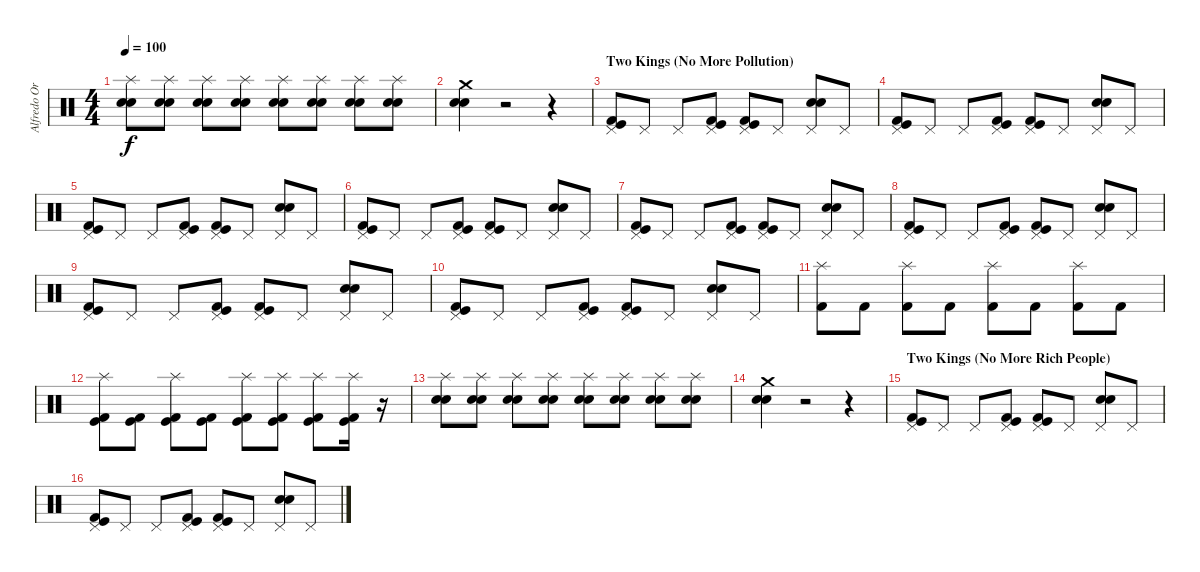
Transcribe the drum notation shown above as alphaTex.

\track ("Alfredo Ortiz (Drums)" "Alfredo Or") {instrument percussion}
\staff {score}
\articulation defaults
\ts (4 4)
\tempo 100
\clef neutral
\ks c
("Snare (hit) 2" "Electric Snare (hit)" "Splash (hit)").8{dy f volume 11} ("Snare (hit) 2" "Electric Snare (hit)" "Splash (hit)").8 ("Snare (hit) 2" "Electric Snare (hit)" "Splash (hit)").8 ("Snare (hit) 2" "Electric Snare (hit)" "Splash (hit)").8 ("Snare (hit) 2" "Electric Snare (hit)" "Splash (hit)").8 ("Snare (hit) 2" "Electric Snare (hit)" "Splash (hit)").8 ("Snare (hit) 2" "Electric Snare (hit)" "Splash (hit)").8 ("Snare (hit) 2" "Electric Snare (hit)" "Splash (hit)").8 |
("Snare (hit) 2" "Electric Snare (hit)" "Crash medium (hit)").4 r.2 r.4 |
\section ("" "Two Kings (No More Pollution)")
("Kick (hit) 2" "Kick (hit)" "Pedal Hi-Hat (hit)").8 "Pedal Hi-Hat (hit)".8 "Pedal Hi-Hat (hit)".8 ("Kick (hit) 2" "Kick (hit)" "Pedal Hi-Hat (hit)").8 ("Kick (hit) 2" "Kick (hit)" "Pedal Hi-Hat (hit)").8 "Pedal Hi-Hat (hit)".8 ("Snare (hit) 2" "Electric Snare (hit)" "Pedal Hi-Hat (hit)").8 "Pedal Hi-Hat (hit)".8 |
("Kick (hit) 2" "Kick (hit)" "Pedal Hi-Hat (hit)").8 "Pedal Hi-Hat (hit)".8 "Pedal Hi-Hat (hit)".8 ("Kick (hit) 2" "Kick (hit)" "Pedal Hi-Hat (hit)").8 ("Kick (hit) 2" "Kick (hit)" "Pedal Hi-Hat (hit)").8 "Pedal Hi-Hat (hit)".8 ("Snare (hit) 2" "Electric Snare (hit)" "Pedal Hi-Hat (hit)").8 "Pedal Hi-Hat (hit)".8 |
("Kick (hit) 2" "Kick (hit)" "Pedal Hi-Hat (hit)").8 "Pedal Hi-Hat (hit)".8 "Pedal Hi-Hat (hit)".8 ("Kick (hit) 2" "Kick (hit)" "Pedal Hi-Hat (hit)").8 ("Kick (hit) 2" "Kick (hit)" "Pedal Hi-Hat (hit)").8 "Pedal Hi-Hat (hit)".8 ("Snare (hit) 2" "Electric Snare (hit)" "Pedal Hi-Hat (hit)").8 "Pedal Hi-Hat (hit)".8 |
("Kick (hit) 2" "Kick (hit)" "Pedal Hi-Hat (hit)").8 "Pedal Hi-Hat (hit)".8 "Pedal Hi-Hat (hit)".8 ("Kick (hit) 2" "Kick (hit)" "Pedal Hi-Hat (hit)").8 ("Kick (hit) 2" "Kick (hit)" "Pedal Hi-Hat (hit)").8 "Pedal Hi-Hat (hit)".8 ("Snare (hit) 2" "Electric Snare (hit)" "Pedal Hi-Hat (hit)").8 "Pedal Hi-Hat (hit)".8 |
("Kick (hit) 2" "Kick (hit)" "Pedal Hi-Hat (hit)").8 "Pedal Hi-Hat (hit)".8 "Pedal Hi-Hat (hit)".8 ("Kick (hit) 2" "Kick (hit)" "Pedal Hi-Hat (hit)").8 ("Kick (hit) 2" "Kick (hit)" "Pedal Hi-Hat (hit)").8 "Pedal Hi-Hat (hit)".8 ("Snare (hit) 2" "Electric Snare (hit)" "Pedal Hi-Hat (hit)").8 "Pedal Hi-Hat (hit)".8 |
("Kick (hit) 2" "Kick (hit)" "Pedal Hi-Hat (hit)").8 "Pedal Hi-Hat (hit)".8 "Pedal Hi-Hat (hit)".8 ("Kick (hit) 2" "Kick (hit)" "Pedal Hi-Hat (hit)").8 ("Kick (hit) 2" "Kick (hit)" "Pedal Hi-Hat (hit)").8 "Pedal Hi-Hat (hit)".8 ("Snare (hit) 2" "Electric Snare (hit)" "Pedal Hi-Hat (hit)").8 "Pedal Hi-Hat (hit)".8 |
("Kick (hit) 2" "Kick (hit)" "Pedal Hi-Hat (hit)").8 "Pedal Hi-Hat (hit)".8 "Pedal Hi-Hat (hit)".8 ("Kick (hit) 2" "Kick (hit)" "Pedal Hi-Hat (hit)").8 ("Kick (hit) 2" "Kick (hit)" "Pedal Hi-Hat (hit)").8 "Pedal Hi-Hat (hit)".8 ("Snare (hit) 2" "Electric Snare (hit)" "Pedal Hi-Hat (hit)").8 "Pedal Hi-Hat (hit)".8 |
("Kick (hit) 2" "Kick (hit)" "Pedal Hi-Hat (hit)").8 "Pedal Hi-Hat (hit)".8 "Pedal Hi-Hat (hit)".8 ("Kick (hit) 2" "Kick (hit)" "Pedal Hi-Hat (hit)").8 ("Kick (hit) 2" "Kick (hit)" "Pedal Hi-Hat (hit)").8 "Pedal Hi-Hat (hit)".8 ("Snare (hit) 2" "Electric Snare (hit)" "Pedal Hi-Hat (hit)").8 "Pedal Hi-Hat (hit)".8 |
("Kick (hit) 2" "Splash (hit)").8 "Kick (hit) 2".8 ("Kick (hit) 2" "Splash (hit)").8 "Kick (hit) 2".8 ("Kick (hit) 2" "Splash (hit)").8 "Kick (hit) 2".8 ("Kick (hit) 2" "Splash (hit)").8 "Kick (hit) 2".8 |
("Kick (hit) 2" "Kick (hit)" "Splash (hit)").8 ("Kick (hit) 2" "Kick (hit)").8 ("Kick (hit) 2" "Kick (hit)" "Splash (hit)").8 ("Kick (hit) 2" "Kick (hit)").8 ("Kick (hit) 2" "Kick (hit)" "Splash (hit)").8 ("Kick (hit) 2" "Kick (hit)" "Splash (hit)").8 ("Kick (hit) 2" "Kick (hit)" "Splash (hit)").8 ("Kick (hit) 2" "Kick (hit)" "Splash (hit)").16 r.16{volume 8} |
("Snare (hit) 2" "Electric Snare (hit)" "Splash (hit)").8{volume 11} ("Snare (hit) 2" "Electric Snare (hit)" "Splash (hit)").8 ("Snare (hit) 2" "Electric Snare (hit)" "Splash (hit)").8 ("Snare (hit) 2" "Electric Snare (hit)" "Splash (hit)").8 ("Snare (hit) 2" "Electric Snare (hit)" "Splash (hit)").8 ("Snare (hit) 2" "Electric Snare (hit)" "Splash (hit)").8 ("Snare (hit) 2" "Electric Snare (hit)" "Splash (hit)").8 ("Snare (hit) 2" "Electric Snare (hit)" "Splash (hit)").8 |
("Snare (hit) 2" "Electric Snare (hit)" "Crash medium (hit)").4 r.2 r.4 |
\section ("" "Two Kings (No More Rich People)")
("Kick (hit) 2" "Kick (hit)" "Pedal Hi-Hat (hit)").8 "Pedal Hi-Hat (hit)".8 "Pedal Hi-Hat (hit)".8 ("Kick (hit) 2" "Kick (hit)" "Pedal Hi-Hat (hit)").8 ("Kick (hit) 2" "Kick (hit)" "Pedal Hi-Hat (hit)").8 "Pedal Hi-Hat (hit)".8 ("Snare (hit) 2" "Electric Snare (hit)" "Pedal Hi-Hat (hit)").8 "Pedal Hi-Hat (hit)".8 |
("Kick (hit) 2" "Kick (hit)" "Pedal Hi-Hat (hit)").8 "Pedal Hi-Hat (hit)".8 "Pedal Hi-Hat (hit)".8 ("Kick (hit) 2" "Kick (hit)" "Pedal Hi-Hat (hit)").8 ("Kick (hit) 2" "Kick (hit)" "Pedal Hi-Hat (hit)").8 "Pedal Hi-Hat (hit)".8 ("Snare (hit) 2" "Electric Snare (hit)" "Pedal Hi-Hat (hit)").8 "Pedal Hi-Hat (hit)".8
